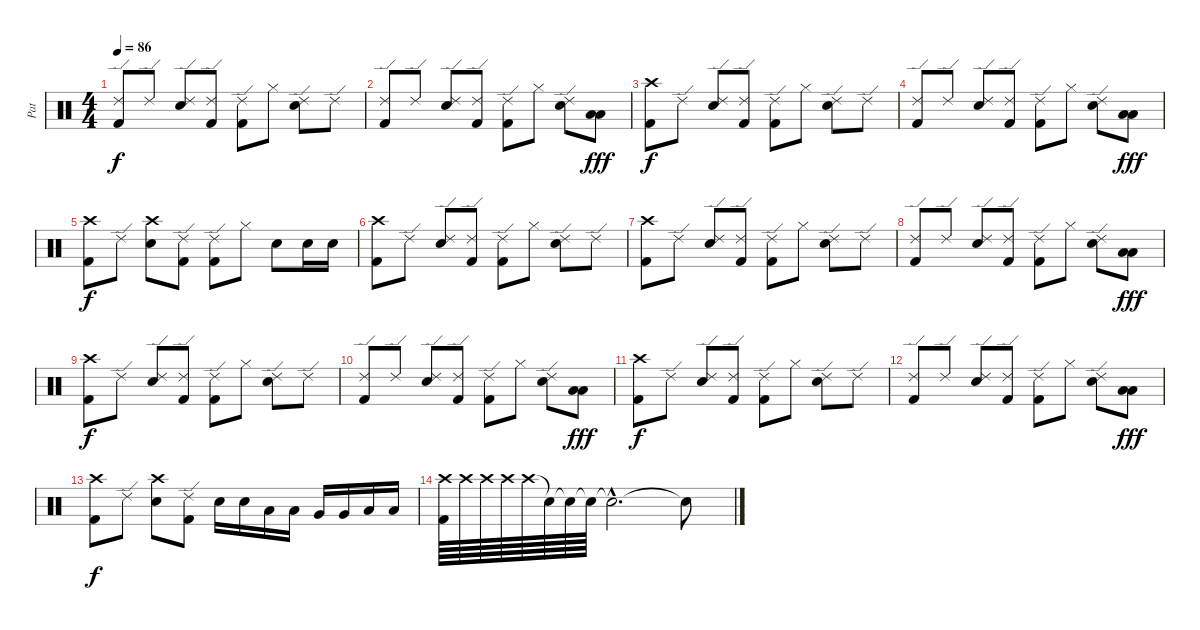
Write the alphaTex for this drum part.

\track ("Pat" "Pat") {instrument percussion}
\staff {score}
\articulation defaults
\ts (4 4)
\tempo 86
\clef neutral
\ks c
("Ride (edge) 2" "Kick (hit) 2").8{dy f} "Ride (edge) 2".8 ("Ride (edge) 2" "Snare (hit) 2").8 ("Ride (edge) 2" "Kick (hit) 2").8 ("Ride (edge) 2" "Kick (hit) 2").8 "Hi-Hat (closed)".8 ("Ride (edge) 2" "Snare (hit) 2").8 "Ride (edge) 2".8 |
("Ride (edge) 2" "Kick (hit) 2").8 "Ride (edge) 2".8 ("Ride (edge) 2" "Snare (hit) 2").8 ("Ride (edge) 2" "Kick (hit) 2").8 ("Ride (edge) 2" "Kick (hit) 2").8 "Hi-Hat (closed)".8 ("Ride (edge) 2" "Snare (hit) 2").8 ("Low Floor Tom (hit)" "Low Floor Tom (hit)").8{dy fff} |
("Crash high (hit)" "Kick (hit) 2").8{dy f} "Ride (edge) 2".8 ("Ride (edge) 2" "Snare (hit) 2").8 ("Ride (edge) 2" "Kick (hit) 2").8 ("Ride (edge) 2" "Kick (hit) 2").8 "Hi-Hat (closed)".8 ("Ride (edge) 2" "Snare (hit) 2").8 "Ride (edge) 2".8 |
("Ride (edge) 2" "Kick (hit) 2").8 "Ride (edge) 2".8 ("Ride (edge) 2" "Snare (hit) 2").8 ("Ride (edge) 2" "Kick (hit) 2").8 ("Ride (edge) 2" "Kick (hit) 2").8 "Hi-Hat (closed)".8 ("Ride (edge) 2" "Snare (hit) 2").8 ("Low Floor Tom (hit)" "Low Floor Tom (hit)").8{dy fff} |
("Crash high (hit)" "Kick (hit) 2").8{dy f} "Ride (edge) 2".8 ("Crash high (hit)" "Snare (hit) 2").8 ("Ride (edge) 2" "Kick (hit) 2").8 ("Ride (edge) 2" "Kick (hit) 2").8 "Hi-Hat (closed)".8 "Snare (hit) 2".8 "Snare (hit) 2".16 "Snare (hit) 2".16 |
("Crash high (hit)" "Kick (hit) 2").8 "Ride (edge) 2".8 ("Ride (edge) 2" "Snare (hit) 2").8 ("Ride (edge) 2" "Kick (hit) 2").8 ("Ride (edge) 2" "Kick (hit) 2").8 "Hi-Hat (closed)".8 ("Ride (edge) 2" "Snare (hit) 2").8 "Ride (edge) 2".8 |
("Crash high (hit)" "Kick (hit) 2").8 "Ride (edge) 2".8 ("Ride (edge) 2" "Snare (hit) 2").8 ("Ride (edge) 2" "Kick (hit) 2").8 ("Ride (edge) 2" "Kick (hit) 2").8 "Hi-Hat (closed)".8 ("Ride (edge) 2" "Snare (hit) 2").8 "Ride (edge) 2".8 |
("Ride (edge) 2" "Kick (hit) 2").8 "Ride (edge) 2".8 ("Ride (edge) 2" "Snare (hit) 2").8 ("Ride (edge) 2" "Kick (hit) 2").8 ("Ride (edge) 2" "Kick (hit) 2").8 "Hi-Hat (closed)".8 ("Ride (edge) 2" "Snare (hit) 2").8 ("Low Floor Tom (hit)" "Low Floor Tom (hit)").8{dy fff} |
("Crash high (hit)" "Kick (hit) 2").8{dy f} "Ride (edge) 2".8 ("Ride (edge) 2" "Snare (hit) 2").8 ("Ride (edge) 2" "Kick (hit) 2").8 ("Ride (edge) 2" "Kick (hit) 2").8 "Hi-Hat (closed)".8 ("Ride (edge) 2" "Snare (hit) 2").8 "Ride (edge) 2".8 |
("Ride (edge) 2" "Kick (hit) 2").8 "Ride (edge) 2".8 ("Ride (edge) 2" "Snare (hit) 2").8 ("Ride (edge) 2" "Kick (hit) 2").8 ("Ride (edge) 2" "Kick (hit) 2").8 "Hi-Hat (closed)".8 ("Ride (edge) 2" "Snare (hit) 2").8 ("Low Floor Tom (hit)" "Low Floor Tom (hit)").8{dy fff} |
("Crash high (hit)" "Kick (hit) 2").8{dy f} "Ride (edge) 2".8 ("Ride (edge) 2" "Snare (hit) 2").8 ("Ride (edge) 2" "Kick (hit) 2").8 ("Ride (edge) 2" "Kick (hit) 2").8 "Hi-Hat (closed)".8 ("Ride (edge) 2" "Snare (hit) 2").8 "Ride (edge) 2".8 |
("Ride (edge) 2" "Kick (hit) 2").8 "Ride (edge) 2".8 ("Ride (edge) 2" "Snare (hit) 2").8 ("Ride (edge) 2" "Kick (hit) 2").8 ("Ride (edge) 2" "Kick (hit) 2").8 "Hi-Hat (closed)".8 ("Ride (edge) 2" "Snare (hit) 2").8 ("Low Floor Tom (hit)" "Low Floor Tom (hit)").8{dy fff} |
("Crash high (hit)" "Kick (hit) 2").8{dy f} "Ride (edge) 2".8 ("Crash high (hit)" "Snare (hit) 2").8 ("Ride (edge) 2" "Kick (hit) 2").8 "Snare (hit) 2".16 "Snare (hit) 2".16 "Low Tom (hit)".16 "Low Tom (hit)".16 "Very Low Tom (hit)".16 "Very Low Tom (hit)".16 "Low Floor Tom (hit)".16 "Low Floor Tom (hit)".16 |
("Crash high (hit)" "Kick (hit) 2").64 "Crash high (hit)".64 "Crash high (hit)".64 "Crash high (hit)".64 "Crash high (hit)".64 "Snare (hit)"{t}.64 "Snare (hit)"{t}.64 "Snare (hit)"{t}.64 "Snare (hit)"{hac t}.2{d} "Snare (hit)"{t}.8
